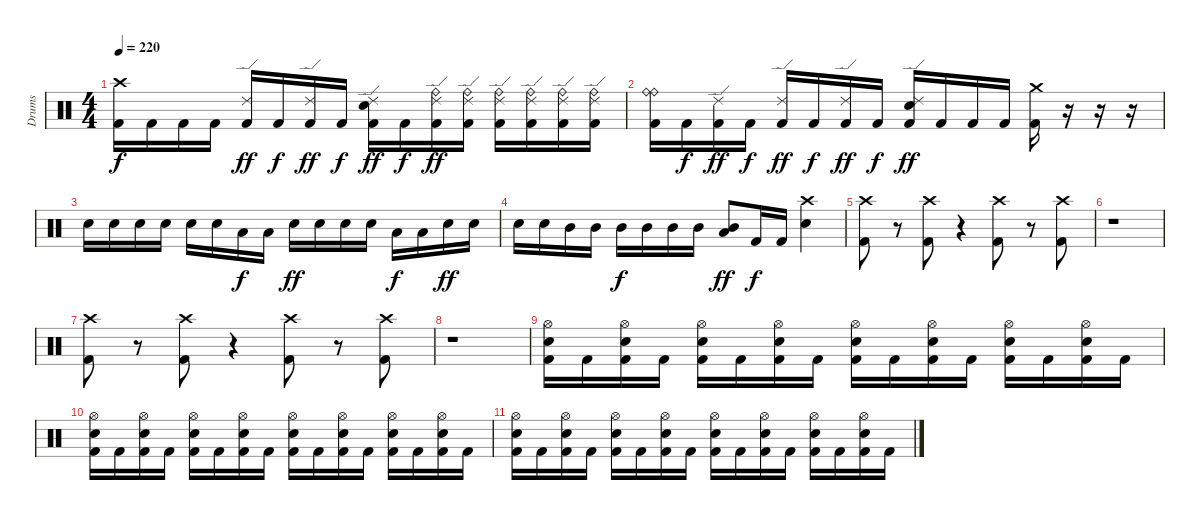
\track ("Drums" "Drums") {instrument percussion}
\staff {score}
\articulation defaults
\ts (4 4)
\tempo 220
\clef neutral
\ks c
("Crash high (hit)" "Kick (hit) 2").16{dy f} "Kick (hit) 2".16 "Kick (hit) 2".16 "Kick (hit) 2".16 ("Ride (edge) 2" "Kick (hit) 2").16{dy ff} "Kick (hit) 2".16{dy f} ("Ride (edge) 2" "Kick (hit) 2").16{dy ff} "Kick (hit) 2".16{dy f} ("Ride (edge) 2" "Electric Snare (hit)" "Kick (hit) 2").16{dy ff} "Kick (hit) 2".16{dy f} ("Ride (bell)" "Ride (edge) 2" "Kick (hit) 2").16{dy ff} ("Ride (bell)" "Ride (edge) 2" "Kick (hit) 2").16 ("Ride (bell)" "Ride (edge) 2" "Kick (hit) 2").16 ("Ride (bell)" "Ride (edge) 2" "Kick (hit) 2").16 ("Ride (bell)" "Ride (edge) 2" "Kick (hit) 2").16 ("Ride (bell)" "Ride (edge) 2" "Kick (hit) 2").16 |
("Ride (bell)" "Ride (bell)" "Kick (hit) 2").16 "Kick (hit) 2".16{dy f} ("Ride (edge) 2" "Kick (hit) 2").16{dy ff} "Kick (hit) 2".16{dy f} ("Ride (edge) 2" "Kick (hit) 2").16{dy ff} "Kick (hit) 2".16{dy f} ("Ride (edge) 2" "Kick (hit) 2").16{dy ff} "Kick (hit) 2".16{dy f} ("Ride (edge) 2" "Electric Snare (hit)" "Kick (hit) 2").16{dy ff} "Kick (hit) 2".16 "Kick (hit) 2".16 "Kick (hit) 2".16 ("Crash medium (hit)" "Kick (hit) 2").16 r.16 r.16 r.16 |
"Electric Snare (hit)".16 "Electric Snare (hit)".16 "Electric Snare (hit)".16 "Electric Snare (hit)".16 "Electric Snare (hit)".16 "Electric Snare (hit)".16 "Low Tom (hit)".16{dy f} "Low Tom (hit)".16 "Electric Snare (hit)".16{dy ff} "Electric Snare (hit)".16 "Electric Snare (hit)".16 "Electric Snare (hit)".16 "Low Tom (hit)".16{dy f} "Low Tom (hit)".16 "Electric Snare (hit)".16{dy ff} "Electric Snare (hit)".16 |
"Electric Snare (hit)".16 "Electric Snare (hit)".16 "Mid Tom (hit)".16 "Mid Tom (hit)".16 "Mid Tom (hit)".16{dy f} "Mid Tom (hit)".16 "Mid Tom (hit)".16 "Mid Tom (hit)".16 ("Mid Tom (hit)" "Low Tom (hit)").8{dy ff} "Kick (hit) 2".16{dy f} "Kick (hit) 2".16 ("Crash high (hit)" "Electric Snare (hit)").4 |
("Crash high (hit)" "Kick (hit) 2").8 r.8 ("Crash high (hit)" "Kick (hit) 2").8 r.4 ("Crash high (hit)" "Kick (hit) 2").8 r.8 ("Crash high (hit)" "Kick (hit) 2").8 |
r.1 |
("Crash high (hit)" "Kick (hit) 2").8 r.8 ("Crash high (hit)" "Kick (hit) 2").8 r.4 ("Crash high (hit)" "Kick (hit) 2").8 r.8 ("Crash high (hit)" "Kick (hit) 2").8 |
r.1 |
("Hi-Hat (open)" "Electric Snare (hit)" "Kick (hit) 2").16 "Kick (hit) 2".16 ("Hi-Hat (open)" "Electric Snare (hit)" "Kick (hit) 2").16 "Kick (hit) 2".16 ("Hi-Hat (open)" "Electric Snare (hit)" "Kick (hit) 2").16 "Kick (hit) 2".16 ("Hi-Hat (open)" "Electric Snare (hit)" "Kick (hit) 2").16 "Kick (hit) 2".16 ("Hi-Hat (open)" "Electric Snare (hit)" "Kick (hit) 2").16 "Kick (hit) 2".16 ("Hi-Hat (open)" "Electric Snare (hit)" "Kick (hit) 2").16 "Kick (hit) 2".16 ("Hi-Hat (open)" "Electric Snare (hit)" "Kick (hit) 2").16 "Kick (hit) 2".16 ("Hi-Hat (open)" "Electric Snare (hit)" "Kick (hit) 2").16 "Kick (hit) 2".16 |
("Hi-Hat (open)" "Electric Snare (hit)" "Kick (hit) 2").16 "Kick (hit) 2".16 ("Hi-Hat (open)" "Electric Snare (hit)" "Kick (hit) 2").16 "Kick (hit) 2".16 ("Hi-Hat (open)" "Electric Snare (hit)" "Kick (hit) 2").16 "Kick (hit) 2".16 ("Hi-Hat (open)" "Electric Snare (hit)" "Kick (hit) 2").16 "Kick (hit) 2".16 ("Hi-Hat (open)" "Electric Snare (hit)" "Kick (hit) 2").16 "Kick (hit) 2".16 ("Hi-Hat (open)" "Electric Snare (hit)" "Kick (hit) 2").16 "Kick (hit) 2".16 ("Hi-Hat (open)" "Electric Snare (hit)" "Kick (hit) 2").16 "Kick (hit) 2".16 ("Hi-Hat (open)" "Electric Snare (hit)" "Kick (hit) 2").16 "Kick (hit) 2".16 |
("Hi-Hat (open)" "Electric Snare (hit)" "Kick (hit) 2").16 "Kick (hit) 2".16 ("Hi-Hat (open)" "Electric Snare (hit)" "Kick (hit) 2").16 "Kick (hit) 2".16 ("Hi-Hat (open)" "Electric Snare (hit)" "Kick (hit) 2").16 "Kick (hit) 2".16 ("Hi-Hat (open)" "Electric Snare (hit)" "Kick (hit) 2").16 "Kick (hit) 2".16 ("Hi-Hat (open)" "Electric Snare (hit)" "Kick (hit) 2").16 "Kick (hit) 2".16 ("Hi-Hat (open)" "Electric Snare (hit)" "Kick (hit) 2").16 "Kick (hit) 2".16 ("Hi-Hat (open)" "Electric Snare (hit)" "Kick (hit) 2").16 "Kick (hit) 2".16 ("Hi-Hat (open)" "Electric Snare (hit)" "Kick (hit) 2").16 "Kick (hit) 2".16
